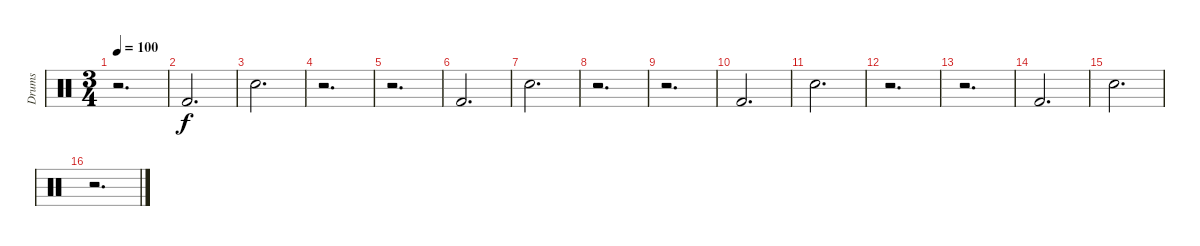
\track ("Drums" "Drums") {instrument percussion}
\staff {score}
\articulation defaults
\ts (3 4)
\tempo 100
\clef neutral
\ks c
r.2{d dy f} |
"Kick (hit) 2".2{d} |
"Electric Snare (hit)".2{d} |
r.2{d} |
r.2{d} |
"Kick (hit) 2".2{d} |
"Electric Snare (hit)".2{d} |
r.2{d} |
r.2{d} |
"Kick (hit) 2".2{d} |
"Electric Snare (hit)".2{d} |
r.2{d} |
r.2{d} |
"Kick (hit) 2".2{d} |
"Electric Snare (hit)".2{d} |
r.2{d}
